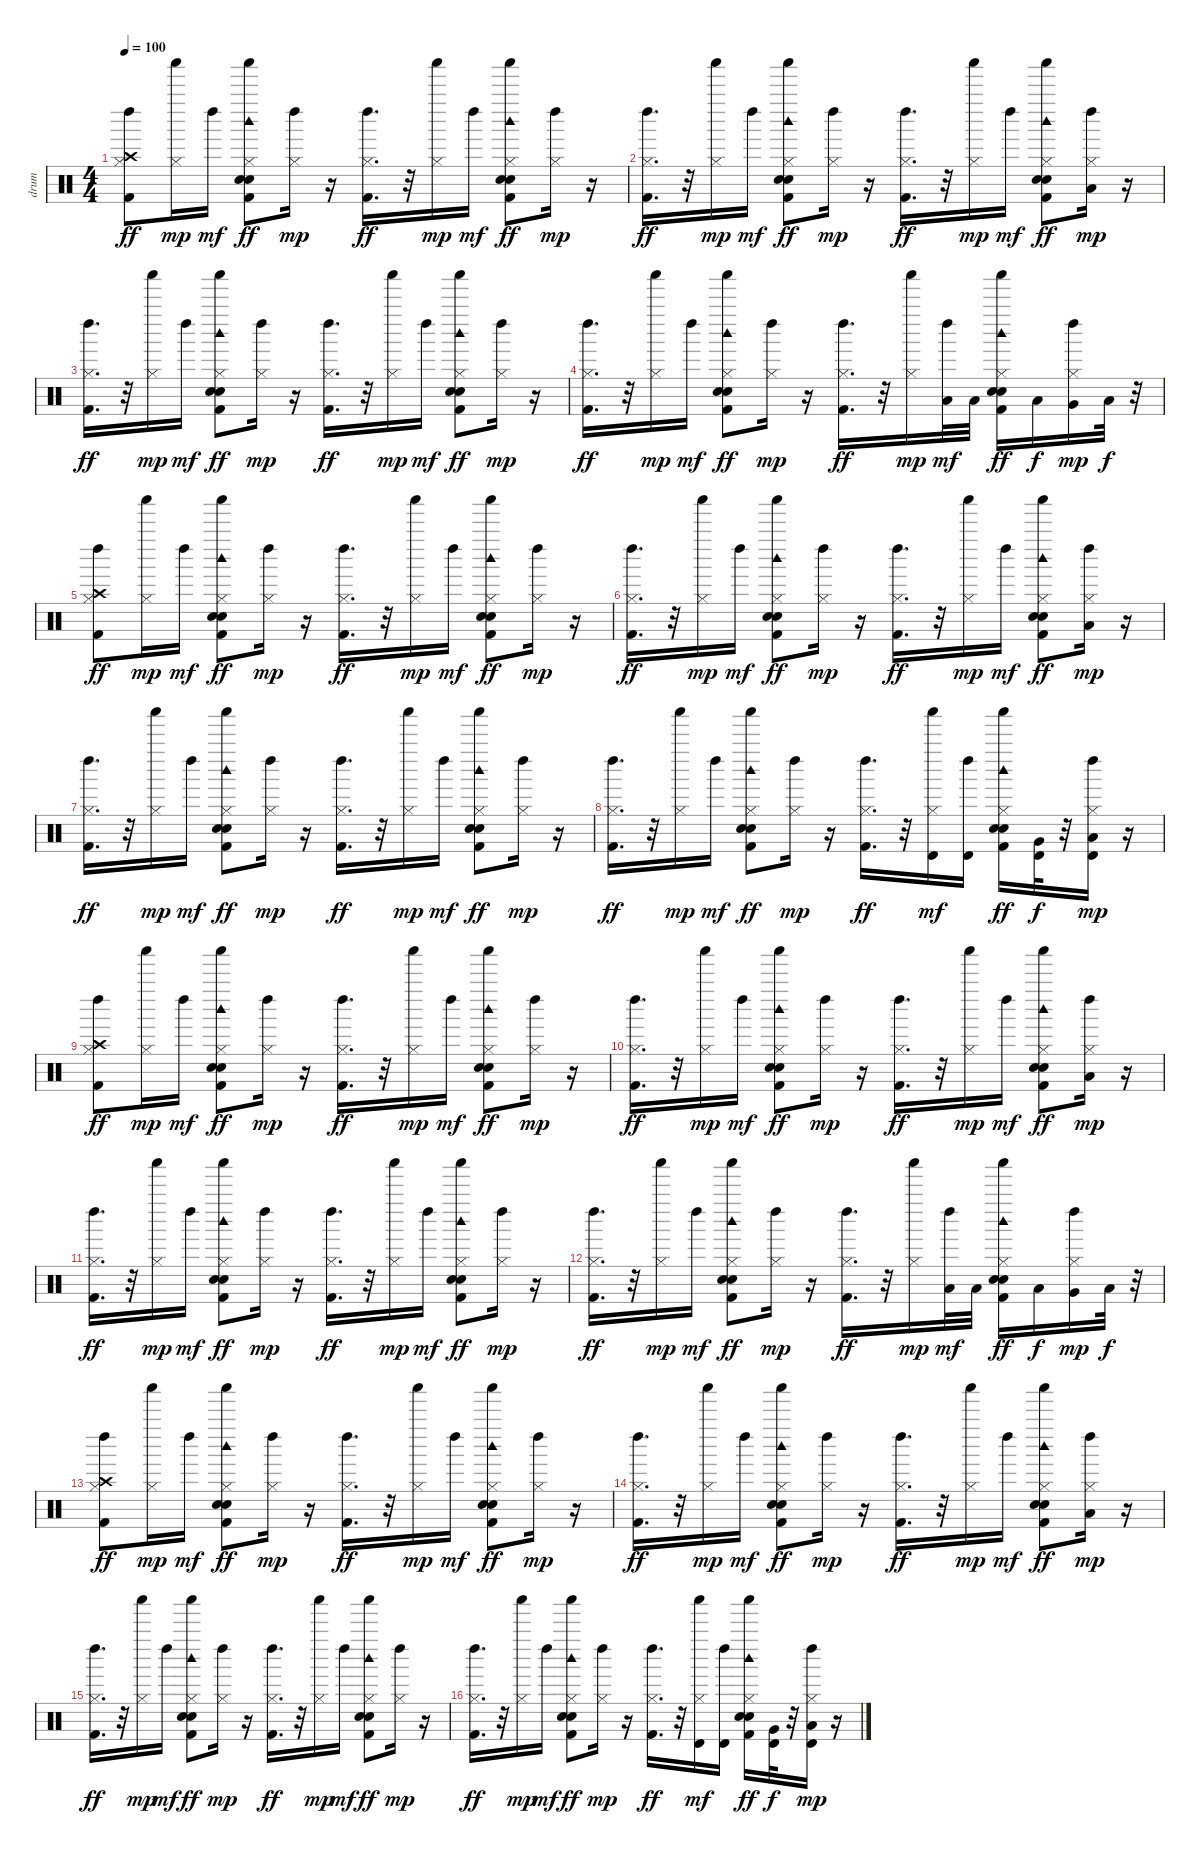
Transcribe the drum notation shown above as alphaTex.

\track ("drum" "drum") {instrument percussion}
\staff {score}
\articulation defaults
\ts (4 4)
\tempo 100
\clef neutral
\ks c
("Crash high (hit)" "Left Maraca (hit)" "Hi-Hat (closed)" "Kick (hit) 2").8{dy ff} ("Shaker (hit)" "Hi-Hat (closed)").16{dy mp} "Left Maraca (hit)".16{dy mf} ("Shaker (hit)" "Woodblock high (hit)" "Hi-Hat (closed)" "Hand Clap (hit)" "Snare (hit) 2" "Kick (hit) 2").8{dy ff} ("Left Maraca (hit)" "Hi-Hat (closed)").16{dy mp} r.16 ("Left Maraca (hit)" "Hi-Hat (closed)" "Kick (hit) 2").16{d dy ff} r.32 ("Shaker (hit)" "Hi-Hat (closed)").16{dy mp} "Left Maraca (hit)".16{dy mf} ("Shaker (hit)" "Woodblock high (hit)" "Hi-Hat (closed)" "Hand Clap (hit)" "Snare (hit) 2" "Kick (hit) 2").8{dy ff} ("Left Maraca (hit)" "Hi-Hat (closed)").16{dy mp} r.16 |
("Left Maraca (hit)" "Hi-Hat (closed)" "Kick (hit) 2").16{d dy ff} r.32 ("Shaker (hit)" "Hi-Hat (closed)").16{dy mp} "Left Maraca (hit)".16{dy mf} ("Shaker (hit)" "Woodblock high (hit)" "Hi-Hat (closed)" "Hand Clap (hit)" "Snare (hit) 2" "Kick (hit) 2").8{dy ff} ("Left Maraca (hit)" "Hi-Hat (closed)").16{dy mp} r.16 ("Left Maraca (hit)" "Hi-Hat (closed)" "Kick (hit) 2").16{d dy ff} r.32 ("Shaker (hit)" "Hi-Hat (closed)").16{dy mp} "Left Maraca (hit)".16{dy mf} ("Shaker (hit)" "Woodblock high (hit)" "Hi-Hat (closed)" "Hand Clap (hit)" "Snare (hit) 2" "Kick (hit) 2").8{dy ff} ("Left Maraca (hit)" "Hi-Hat (closed)" "Low Floor Tom (hit)").16{dy mp} r.16 |
("Left Maraca (hit)" "Hi-Hat (closed)" "Kick (hit) 2").16{d dy ff} r.32 ("Shaker (hit)" "Hi-Hat (closed)").16{dy mp} "Left Maraca (hit)".16{dy mf} ("Shaker (hit)" "Woodblock high (hit)" "Hi-Hat (closed)" "Hand Clap (hit)" "Snare (hit) 2" "Kick (hit) 2").8{dy ff} ("Left Maraca (hit)" "Hi-Hat (closed)").16{dy mp} r.16 ("Left Maraca (hit)" "Hi-Hat (closed)" "Kick (hit) 2").16{d dy ff} r.32 ("Shaker (hit)" "Hi-Hat (closed)").16{dy mp} "Left Maraca (hit)".16{dy mf} ("Shaker (hit)" "Woodblock high (hit)" "Hi-Hat (closed)" "Hand Clap (hit)" "Snare (hit) 2" "Kick (hit) 2").8{dy ff} ("Left Maraca (hit)" "Hi-Hat (closed)").16{dy mp} r.16 |
("Left Maraca (hit)" "Hi-Hat (closed)" "Kick (hit) 2").16{d dy ff} r.32 ("Shaker (hit)" "Hi-Hat (closed)").16{dy mp} "Left Maraca (hit)".16{dy mf} ("Shaker (hit)" "Woodblock high (hit)" "Hi-Hat (closed)" "Hand Clap (hit)" "Snare (hit) 2" "Kick (hit) 2").8{dy ff} ("Left Maraca (hit)" "Hi-Hat (closed)").16{dy mp} r.16 ("Left Maraca (hit)" "Hi-Hat (closed)" "Kick (hit) 2").16{d dy ff} r.32 ("Shaker (hit)" "Hi-Hat (closed)").16{dy mp} ("Left Maraca (hit)" "Low Tom (hit)").32{dy mf} "Low Tom (hit)".32 ("Shaker (hit)" "Woodblock high (hit)" "Hi-Hat (closed)" "Hand Clap (hit)" "Snare (hit) 2" "Kick (hit) 2").16{dy ff} "Low Tom (hit)".16{dy f} ("Left Maraca (hit)" "Hi-Hat (closed)" "Very Low Tom (hit)").16{dy mp} "Low Floor Tom (hit)".32{dy f} r.32 |
("Crash high (hit)" "Left Maraca (hit)" "Hi-Hat (closed)" "Kick (hit) 2").8{dy ff} ("Shaker (hit)" "Hi-Hat (closed)").16{dy mp} "Left Maraca (hit)".16{dy mf} ("Shaker (hit)" "Woodblock high (hit)" "Hi-Hat (closed)" "Hand Clap (hit)" "Snare (hit) 2" "Kick (hit) 2").8{dy ff} ("Left Maraca (hit)" "Hi-Hat (closed)").16{dy mp} r.16 ("Left Maraca (hit)" "Hi-Hat (closed)" "Kick (hit) 2").16{d dy ff} r.32 ("Shaker (hit)" "Hi-Hat (closed)").16{dy mp} "Left Maraca (hit)".16{dy mf} ("Shaker (hit)" "Woodblock high (hit)" "Hi-Hat (closed)" "Hand Clap (hit)" "Snare (hit) 2" "Kick (hit) 2").8{dy ff} ("Left Maraca (hit)" "Hi-Hat (closed)").16{dy mp} r.16 |
("Left Maraca (hit)" "Hi-Hat (closed)" "Kick (hit) 2").16{d dy ff} r.32 ("Shaker (hit)" "Hi-Hat (closed)").16{dy mp} "Left Maraca (hit)".16{dy mf} ("Shaker (hit)" "Woodblock high (hit)" "Hi-Hat (closed)" "Hand Clap (hit)" "Snare (hit) 2" "Kick (hit) 2").8{dy ff} ("Left Maraca (hit)" "Hi-Hat (closed)").16{dy mp} r.16 ("Left Maraca (hit)" "Hi-Hat (closed)" "Kick (hit) 2").16{d dy ff} r.32 ("Shaker (hit)" "Hi-Hat (closed)").16{dy mp} "Left Maraca (hit)".16{dy mf} ("Shaker (hit)" "Woodblock high (hit)" "Hi-Hat (closed)" "Hand Clap (hit)" "Snare (hit) 2" "Kick (hit) 2").8{dy ff} ("Left Maraca (hit)" "Hi-Hat (closed)" "Low Floor Tom (hit)").16{dy mp} r.16 |
("Left Maraca (hit)" "Hi-Hat (closed)" "Kick (hit) 2").16{d dy ff} r.32 ("Shaker (hit)" "Hi-Hat (closed)").16{dy mp} "Left Maraca (hit)".16{dy mf} ("Shaker (hit)" "Woodblock high (hit)" "Hi-Hat (closed)" "Hand Clap (hit)" "Snare (hit) 2" "Kick (hit) 2").8{dy ff} ("Left Maraca (hit)" "Hi-Hat (closed)").16{dy mp} r.16 ("Left Maraca (hit)" "Hi-Hat (closed)" "Kick (hit) 2").16{d dy ff} r.32 ("Shaker (hit)" "Hi-Hat (closed)").16{dy mp} "Left Maraca (hit)".16{dy mf} ("Shaker (hit)" "Woodblock high (hit)" "Hi-Hat (closed)" "Hand Clap (hit)" "Snare (hit) 2" "Kick (hit) 2").8{dy ff} ("Left Maraca (hit)" "Hi-Hat (closed)").16{dy mp} r.16 |
("Left Maraca (hit)" "Hi-Hat (closed)" "Kick (hit) 2").16{d dy ff} r.32 ("Shaker (hit)" "Hi-Hat (closed)").16{dy mp} "Left Maraca (hit)".16{dy mf} ("Shaker (hit)" "Woodblock high (hit)" "Hi-Hat (closed)" "Hand Clap (hit)" "Snare (hit) 2" "Kick (hit) 2").8{dy ff} ("Left Maraca (hit)" "Hi-Hat (closed)").16{dy mp} r.16 ("Left Maraca (hit)" "Hi-Hat (closed)" "Kick (hit) 2").16{d dy ff} r.32 ("Shaker (hit)" "Hi-Hat (closed)" "Timbale high (hit)").16{dy mf} ("Left Maraca (hit)" "Timbale high (hit)").16 ("Shaker (hit)" "Woodblock high (hit)" "Hi-Hat (closed)" "Hand Clap (hit)" "Snare (hit) 2" "Kick (hit) 2").16{dy ff} ("Very Low Tom (hit)" "Timbale high (hit)").32{dy f} r.32 ("Left Maraca (hit)" "Hi-Hat (closed)" "Low Floor Tom (hit)" "Timbale high (hit)").16{dy mp} r.16 |
("Crash high (hit)" "Left Maraca (hit)" "Hi-Hat (closed)" "Kick (hit) 2").8{dy ff} ("Shaker (hit)" "Hi-Hat (closed)").16{dy mp} "Left Maraca (hit)".16{dy mf} ("Shaker (hit)" "Woodblock high (hit)" "Hi-Hat (closed)" "Hand Clap (hit)" "Snare (hit) 2" "Kick (hit) 2").8{dy ff} ("Left Maraca (hit)" "Hi-Hat (closed)").16{dy mp} r.16 ("Left Maraca (hit)" "Hi-Hat (closed)" "Kick (hit) 2").16{d dy ff} r.32 ("Shaker (hit)" "Hi-Hat (closed)").16{dy mp} "Left Maraca (hit)".16{dy mf} ("Shaker (hit)" "Woodblock high (hit)" "Hi-Hat (closed)" "Hand Clap (hit)" "Snare (hit) 2" "Kick (hit) 2").8{dy ff} ("Left Maraca (hit)" "Hi-Hat (closed)").16{dy mp} r.16 |
("Left Maraca (hit)" "Hi-Hat (closed)" "Kick (hit) 2").16{d dy ff} r.32 ("Shaker (hit)" "Hi-Hat (closed)").16{dy mp} "Left Maraca (hit)".16{dy mf} ("Shaker (hit)" "Woodblock high (hit)" "Hi-Hat (closed)" "Hand Clap (hit)" "Snare (hit) 2" "Kick (hit) 2").8{dy ff} ("Left Maraca (hit)" "Hi-Hat (closed)").16{dy mp} r.16 ("Left Maraca (hit)" "Hi-Hat (closed)" "Kick (hit) 2").16{d dy ff} r.32 ("Shaker (hit)" "Hi-Hat (closed)").16{dy mp} "Left Maraca (hit)".16{dy mf} ("Shaker (hit)" "Woodblock high (hit)" "Hi-Hat (closed)" "Hand Clap (hit)" "Snare (hit) 2" "Kick (hit) 2").8{dy ff} ("Left Maraca (hit)" "Hi-Hat (closed)" "Low Floor Tom (hit)").16{dy mp} r.16 |
("Left Maraca (hit)" "Hi-Hat (closed)" "Kick (hit) 2").16{d dy ff} r.32 ("Shaker (hit)" "Hi-Hat (closed)").16{dy mp} "Left Maraca (hit)".16{dy mf} ("Shaker (hit)" "Woodblock high (hit)" "Hi-Hat (closed)" "Hand Clap (hit)" "Snare (hit) 2" "Kick (hit) 2").8{dy ff} ("Left Maraca (hit)" "Hi-Hat (closed)").16{dy mp} r.16 ("Left Maraca (hit)" "Hi-Hat (closed)" "Kick (hit) 2").16{d dy ff} r.32 ("Shaker (hit)" "Hi-Hat (closed)").16{dy mp} "Left Maraca (hit)".16{dy mf} ("Shaker (hit)" "Woodblock high (hit)" "Hi-Hat (closed)" "Hand Clap (hit)" "Snare (hit) 2" "Kick (hit) 2").8{dy ff} ("Left Maraca (hit)" "Hi-Hat (closed)").16{dy mp} r.16 |
("Left Maraca (hit)" "Hi-Hat (closed)" "Kick (hit) 2").16{d dy ff} r.32 ("Shaker (hit)" "Hi-Hat (closed)").16{dy mp} "Left Maraca (hit)".16{dy mf} ("Shaker (hit)" "Woodblock high (hit)" "Hi-Hat (closed)" "Hand Clap (hit)" "Snare (hit) 2" "Kick (hit) 2").8{dy ff} ("Left Maraca (hit)" "Hi-Hat (closed)").16{dy mp} r.16 ("Left Maraca (hit)" "Hi-Hat (closed)" "Kick (hit) 2").16{d dy ff} r.32 ("Shaker (hit)" "Hi-Hat (closed)").16{dy mp} ("Left Maraca (hit)" "Low Tom (hit)").32{dy mf} "Low Tom (hit)".32 ("Shaker (hit)" "Woodblock high (hit)" "Hi-Hat (closed)" "Hand Clap (hit)" "Snare (hit) 2" "Kick (hit) 2").16{dy ff} "Low Tom (hit)".16{dy f} ("Left Maraca (hit)" "Hi-Hat (closed)" "Very Low Tom (hit)").16{dy mp} "Low Floor Tom (hit)".32{dy f} r.32 |
("Crash high (hit)" "Left Maraca (hit)" "Hi-Hat (closed)" "Kick (hit) 2").8{dy ff} ("Shaker (hit)" "Hi-Hat (closed)").16{dy mp} "Left Maraca (hit)".16{dy mf} ("Shaker (hit)" "Woodblock high (hit)" "Hi-Hat (closed)" "Hand Clap (hit)" "Snare (hit) 2" "Kick (hit) 2").8{dy ff} ("Left Maraca (hit)" "Hi-Hat (closed)").16{dy mp} r.16 ("Left Maraca (hit)" "Hi-Hat (closed)" "Kick (hit) 2").16{d dy ff} r.32 ("Shaker (hit)" "Hi-Hat (closed)").16{dy mp} "Left Maraca (hit)".16{dy mf} ("Shaker (hit)" "Woodblock high (hit)" "Hi-Hat (closed)" "Hand Clap (hit)" "Snare (hit) 2" "Kick (hit) 2").8{dy ff} ("Left Maraca (hit)" "Hi-Hat (closed)").16{dy mp} r.16 |
("Left Maraca (hit)" "Hi-Hat (closed)" "Kick (hit) 2").16{d dy ff} r.32 ("Shaker (hit)" "Hi-Hat (closed)").16{dy mp} "Left Maraca (hit)".16{dy mf} ("Shaker (hit)" "Woodblock high (hit)" "Hi-Hat (closed)" "Hand Clap (hit)" "Snare (hit) 2" "Kick (hit) 2").8{dy ff} ("Left Maraca (hit)" "Hi-Hat (closed)").16{dy mp} r.16 ("Left Maraca (hit)" "Hi-Hat (closed)" "Kick (hit) 2").16{d dy ff} r.32 ("Shaker (hit)" "Hi-Hat (closed)").16{dy mp} "Left Maraca (hit)".16{dy mf} ("Shaker (hit)" "Woodblock high (hit)" "Hi-Hat (closed)" "Hand Clap (hit)" "Snare (hit) 2" "Kick (hit) 2").8{dy ff} ("Left Maraca (hit)" "Hi-Hat (closed)" "Low Floor Tom (hit)").16{dy mp} r.16 |
("Left Maraca (hit)" "Hi-Hat (closed)" "Kick (hit) 2").16{d dy ff} r.32 ("Shaker (hit)" "Hi-Hat (closed)").16{dy mp} "Left Maraca (hit)".16{dy mf} ("Shaker (hit)" "Woodblock high (hit)" "Hi-Hat (closed)" "Hand Clap (hit)" "Snare (hit) 2" "Kick (hit) 2").8{dy ff} ("Left Maraca (hit)" "Hi-Hat (closed)").16{dy mp} r.16 ("Left Maraca (hit)" "Hi-Hat (closed)" "Kick (hit) 2").16{d dy ff} r.32 ("Shaker (hit)" "Hi-Hat (closed)").16{dy mp} "Left Maraca (hit)".16{dy mf} ("Shaker (hit)" "Woodblock high (hit)" "Hi-Hat (closed)" "Hand Clap (hit)" "Snare (hit) 2" "Kick (hit) 2").8{dy ff} ("Left Maraca (hit)" "Hi-Hat (closed)").16{dy mp} r.16 |
("Left Maraca (hit)" "Hi-Hat (closed)" "Kick (hit) 2").16{d dy ff} r.32 ("Shaker (hit)" "Hi-Hat (closed)").16{dy mp} "Left Maraca (hit)".16{dy mf} ("Shaker (hit)" "Woodblock high (hit)" "Hi-Hat (closed)" "Hand Clap (hit)" "Snare (hit) 2" "Kick (hit) 2").8{dy ff} ("Left Maraca (hit)" "Hi-Hat (closed)").16{dy mp} r.16 ("Left Maraca (hit)" "Hi-Hat (closed)" "Kick (hit) 2").16{d dy ff} r.32 ("Shaker (hit)" "Hi-Hat (closed)" "Timbale high (hit)").16{dy mf} ("Left Maraca (hit)" "Timbale high (hit)").16 ("Shaker (hit)" "Woodblock high (hit)" "Hi-Hat (closed)" "Hand Clap (hit)" "Snare (hit) 2" "Kick (hit) 2").16{dy ff} ("Very Low Tom (hit)" "Timbale high (hit)").32{dy f} r.32 ("Left Maraca (hit)" "Hi-Hat (closed)" "Low Floor Tom (hit)" "Timbale high (hit)").16{dy mp} r.16
